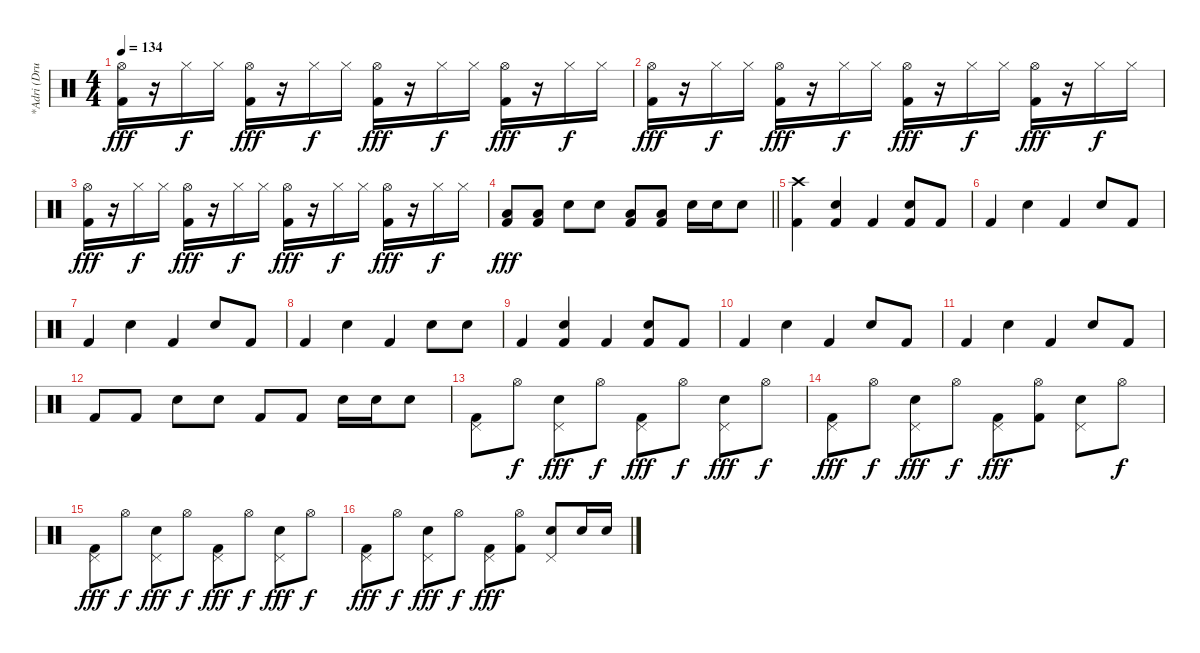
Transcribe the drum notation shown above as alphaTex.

\track ("*Adri (Drum)" "*Adri (Dru") {instrument percussion}
\staff {score}
\articulation defaults
\ts (4 4)
\tempo 134
\clef neutral
\ks c
("Hi-Hat (open)" "Kick (hit) 2").16{dy fff} r.16 "Hi-Hat (closed)".16{dy f} "Hi-Hat (closed)".16 ("Hi-Hat (open)" "Kick (hit) 2").16{dy fff} r.16 "Hi-Hat (closed)".16{dy f} "Hi-Hat (closed)".16 ("Hi-Hat (open)" "Kick (hit) 2").16{dy fff} r.16 "Hi-Hat (closed)".16{dy f} "Hi-Hat (closed)".16 ("Hi-Hat (open)" "Kick (hit) 2").16{dy fff} r.16 "Hi-Hat (closed)".16{dy f} "Hi-Hat (closed)".16 |
("Hi-Hat (open)" "Kick (hit) 2").16{dy fff} r.16 "Hi-Hat (closed)".16{dy f} "Hi-Hat (closed)".16 ("Hi-Hat (open)" "Kick (hit) 2").16{dy fff} r.16 "Hi-Hat (closed)".16{dy f} "Hi-Hat (closed)".16 ("Hi-Hat (open)" "Kick (hit) 2").16{dy fff} r.16 "Hi-Hat (closed)".16{dy f} "Hi-Hat (closed)".16 ("Hi-Hat (open)" "Kick (hit) 2").16{dy fff} r.16 "Hi-Hat (closed)".16{dy f} "Hi-Hat (closed)".16 |
("Hi-Hat (open)" "Kick (hit) 2").16{dy fff} r.16 "Hi-Hat (closed)".16{dy f} "Hi-Hat (closed)".16 ("Hi-Hat (open)" "Kick (hit) 2").16{dy fff} r.16 "Hi-Hat (closed)".16{dy f} "Hi-Hat (closed)".16 ("Hi-Hat (open)" "Kick (hit) 2").16{dy fff} r.16 "Hi-Hat (closed)".16{dy f} "Hi-Hat (closed)".16 ("Hi-Hat (open)" "Kick (hit) 2").16{dy fff} r.16 "Hi-Hat (closed)".16{dy f} "Hi-Hat (closed)".16 |
\barLineRight lightlight
("Low Tom (hit)" "Kick (hit) 2").8{dy fff} ("Low Tom (hit)" "Kick (hit) 2").8 "Snare (hit) 2".8 "Snare (hit) 2".8 ("Low Tom (hit)" "Kick (hit) 2").8 ("Low Tom (hit)" "Kick (hit) 2").8 "Snare (hit) 2".16 "Snare (hit) 2".16 "Snare (hit) 2".8 |
\section ("" "")
("Crash high (hit)" "Kick (hit) 2").4 ("Snare (hit) 2" "Kick (hit) 2").4 "Kick (hit) 2".4 ("Snare (hit) 2" "Kick (hit) 2").8 "Kick (hit) 2".8 |
"Kick (hit) 2".4 "Snare (hit) 2".4 "Kick (hit) 2".4 "Snare (hit) 2".8 "Kick (hit) 2".8 |
"Kick (hit) 2".4 "Snare (hit) 2".4 "Kick (hit) 2".4 "Snare (hit) 2".8 "Kick (hit) 2".8 |
"Kick (hit) 2".4 "Snare (hit) 2".4 "Kick (hit) 2".4 "Snare (hit) 2".8 "Snare (hit) 2".8 |
"Kick (hit) 2".4 ("Snare (hit) 2" "Kick (hit) 2").4 "Kick (hit) 2".4 ("Snare (hit) 2" "Kick (hit) 2").8 "Kick (hit) 2".8 |
"Kick (hit) 2".4 "Snare (hit) 2".4 "Kick (hit) 2".4 "Snare (hit) 2".8 "Kick (hit) 2".8 |
"Kick (hit) 2".4 "Snare (hit) 2".4 "Kick (hit) 2".4 "Snare (hit) 2".8 "Kick (hit) 2".8 |
"Kick (hit) 2".8 "Kick (hit) 2".8 "Snare (hit) 2".8 "Snare (hit) 2".8 "Kick (hit) 2".8 "Kick (hit) 2".8 "Snare (hit) 2".16 "Snare (hit) 2".16 "Snare (hit) 2".8 |
("Pedal Hi-Hat (hit)" "Kick (hit) 2").8 "Hi-Hat (open)".8{dy f} ("Pedal Hi-Hat (hit)" "Snare (hit) 2").8{dy fff} "Hi-Hat (open)".8{dy f} ("Pedal Hi-Hat (hit)" "Kick (hit) 2").8{dy fff} "Hi-Hat (open)".8{dy f} ("Pedal Hi-Hat (hit)" "Snare (hit) 2").8{dy fff} "Hi-Hat (open)".8{dy f} |
("Pedal Hi-Hat (hit)" "Kick (hit) 2").8{dy fff} "Hi-Hat (open)".8{dy f} ("Pedal Hi-Hat (hit)" "Snare (hit) 2").8{dy fff} "Hi-Hat (open)".8{dy f} ("Pedal Hi-Hat (hit)" "Kick (hit) 2").8{dy fff} ("Hi-Hat (open)" "Kick (hit) 2").8 ("Pedal Hi-Hat (hit)" "Snare (hit) 2").8 "Hi-Hat (open)".8{dy f} |
("Pedal Hi-Hat (hit)" "Kick (hit) 2").8{dy fff} "Hi-Hat (open)".8{dy f} ("Pedal Hi-Hat (hit)" "Snare (hit) 2").8{dy fff} "Hi-Hat (open)".8{dy f} ("Pedal Hi-Hat (hit)" "Kick (hit) 2").8{dy fff} "Hi-Hat (open)".8{dy f} ("Pedal Hi-Hat (hit)" "Snare (hit) 2").8{dy fff} "Hi-Hat (open)".8{dy f} |
("Pedal Hi-Hat (hit)" "Kick (hit) 2").8{dy fff} "Hi-Hat (open)".8{dy f} ("Pedal Hi-Hat (hit)" "Snare (hit) 2").8{dy fff} "Hi-Hat (open)".8{dy f} ("Pedal Hi-Hat (hit)" "Kick (hit) 2").8{dy fff} ("Hi-Hat (open)" "Kick (hit) 2").8 ("Pedal Hi-Hat (hit)" "Snare (hit) 2").8 "Snare (hit) 2".16 "Snare (hit) 2".16
